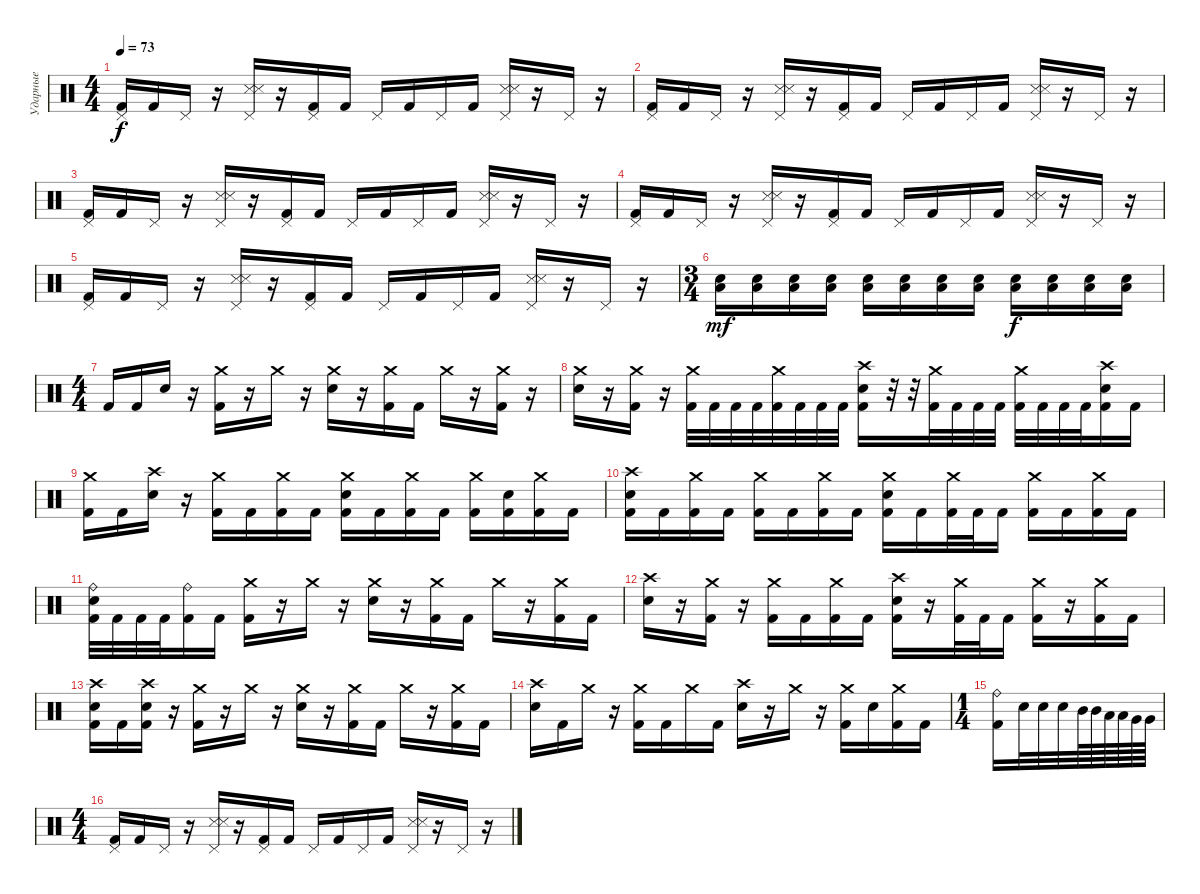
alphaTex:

\track ("Ударные" "Ударные") {instrument percussion}
\staff {score}
\articulation defaults
\ts (4 4)
\tempo 73
\clef neutral
\ks c
("Pedal Hi-Hat (hit)" "Kick (hit) 2").16{dy f} "Kick (hit) 2".16 "Pedal Hi-Hat (hit)".16 r.16 ("Pedal Hi-Hat (hit)" "Snare (side stick) 3" "Snare (side stick) 3").16 r.16 ("Pedal Hi-Hat (hit)" "Kick (hit) 2").16 "Kick (hit) 2".16 "Pedal Hi-Hat (hit)".16 "Kick (hit) 2".16 "Pedal Hi-Hat (hit)".16 "Kick (hit) 2".16 ("Pedal Hi-Hat (hit)" "Snare (side stick) 3" "Snare (side stick) 3").16 r.16 "Pedal Hi-Hat (hit)".16 r.16 |
("Pedal Hi-Hat (hit)" "Kick (hit) 2").16 "Kick (hit) 2".16 "Pedal Hi-Hat (hit)".16 r.16 ("Pedal Hi-Hat (hit)" "Snare (side stick) 3" "Snare (side stick) 3").16 r.16 ("Pedal Hi-Hat (hit)" "Kick (hit) 2").16 "Kick (hit) 2".16 "Pedal Hi-Hat (hit)".16 "Kick (hit) 2".16 "Pedal Hi-Hat (hit)".16 "Kick (hit) 2".16 ("Pedal Hi-Hat (hit)" "Snare (side stick) 3" "Snare (side stick) 3").16 r.16 "Pedal Hi-Hat (hit)".16 r.16 |
("Pedal Hi-Hat (hit)" "Kick (hit) 2").16 "Kick (hit) 2".16 "Pedal Hi-Hat (hit)".16 r.16 ("Pedal Hi-Hat (hit)" "Snare (side stick) 3" "Snare (side stick) 3").16 r.16 ("Pedal Hi-Hat (hit)" "Kick (hit) 2").16 "Kick (hit) 2".16 "Pedal Hi-Hat (hit)".16 "Kick (hit) 2".16 "Pedal Hi-Hat (hit)".16 "Kick (hit) 2".16 ("Pedal Hi-Hat (hit)" "Snare (side stick) 3" "Snare (side stick) 3").16 r.16 "Pedal Hi-Hat (hit)".16 r.16 |
("Pedal Hi-Hat (hit)" "Kick (hit) 2").16 "Kick (hit) 2".16 "Pedal Hi-Hat (hit)".16 r.16 ("Pedal Hi-Hat (hit)" "Snare (side stick) 3" "Snare (side stick) 3").16 r.16 ("Pedal Hi-Hat (hit)" "Kick (hit) 2").16 "Kick (hit) 2".16 "Pedal Hi-Hat (hit)".16 "Kick (hit) 2".16 "Pedal Hi-Hat (hit)".16 "Kick (hit) 2".16 ("Pedal Hi-Hat (hit)" "Snare (side stick) 3" "Snare (side stick) 3").16 r.16 "Pedal Hi-Hat (hit)".16 r.16 |
("Pedal Hi-Hat (hit)" "Kick (hit) 2").16 "Kick (hit) 2".16 "Pedal Hi-Hat (hit)".16 r.16 ("Pedal Hi-Hat (hit)" "Snare (side stick) 3" "Snare (side stick) 3").16 r.16 ("Pedal Hi-Hat (hit)" "Kick (hit) 2").16 "Kick (hit) 2".16 "Pedal Hi-Hat (hit)".16 "Kick (hit) 2".16 "Pedal Hi-Hat (hit)".16 "Kick (hit) 2".16 ("Pedal Hi-Hat (hit)" "Snare (side stick) 3" "Snare (side stick) 3").16 r.16 "Pedal Hi-Hat (hit)".16 r.16 |
\ts (3 4)
("Low Floor Tom (hit)" "Electric Snare (hit)").16{dy mf} ("Low Floor Tom (hit)" "Electric Snare (hit)").16 ("Low Floor Tom (hit)" "Electric Snare (hit)").16 ("Low Floor Tom (hit)" "Electric Snare (hit)").16 ("Low Floor Tom (hit)" "Electric Snare (hit)").16 ("Low Floor Tom (hit)" "Electric Snare (hit)").16 ("Low Floor Tom (hit)" "Electric Snare (hit)").16 ("Low Floor Tom (hit)" "Electric Snare (hit)").16 ("Low Floor Tom (hit)" "Electric Snare (hit)").16{dy f} ("Low Floor Tom (hit)" "Electric Snare (hit)").16 ("Low Floor Tom (hit)" "Electric Snare (hit)").16 ("Low Floor Tom (hit)" "Electric Snare (hit)").16 |
\ts (4 4)
"Kick (hit) 2".16 "Kick (hit) 2".16 "Electric Snare (hit)".16 r.16 ("Crash medium (hit)" "Kick (hit) 2").16 r.16 "Crash medium (hit)".16 r.16 ("Crash medium (hit)" "Electric Snare (hit)").16 r.16 ("Crash medium (hit)" "Kick (hit) 2").16 "Kick (hit) 2".16 "Crash medium (hit)".16 r.16 ("Crash medium (hit)" "Kick (hit) 2").16 r.16 |
("Crash medium (hit)" "Electric Snare (hit)").16 r.16 ("Crash medium (hit)" "Kick (hit) 2").16 r.16 ("Crash medium (hit)" "Kick (hit) 2").32 "Kick (hit) 2".32 "Kick (hit) 2".32 "Kick (hit) 2".32 ("Crash medium (hit)" "Kick (hit) 2").32 "Kick (hit) 2".32 "Kick (hit) 2".32 "Kick (hit) 2".32 ("Crash high (hit)" "Electric Snare (hit)" "Kick (hit) 2").16 r.32 r.32 ("Crash medium (hit)" "Kick (hit) 2").32 "Kick (hit) 2".32 "Kick (hit) 2".32 "Kick (hit) 2".32 ("Crash medium (hit)" "Kick (hit) 2").32 "Kick (hit) 2".32 "Kick (hit) 2".32 "Kick (hit) 2".32 ("Crash high (hit)" "Electric Snare (hit)" "Kick (hit) 2").16 "Kick (hit) 2".16 |
("Crash medium (hit)" "Kick (hit) 2").16 "Kick (hit) 2".16 ("Crash high (hit)" "Electric Snare (hit)").16 r.16 ("Crash medium (hit)" "Kick (hit) 2").16 "Kick (hit) 2".16 ("Crash medium (hit)" "Kick (hit) 2").16 "Kick (hit) 2".16 ("Crash medium (hit)" "Electric Snare (hit)" "Kick (hit) 2").16 "Kick (hit) 2".16 ("Crash medium (hit)" "Kick (hit) 2").16 "Kick (hit) 2".16 ("Crash medium (hit)" "Kick (hit) 2").16 ("Electric Snare (hit)" "Kick (hit) 2").16 ("Crash medium (hit)" "Kick (hit) 2").16 "Kick (hit) 2".16 |
("Crash high (hit)" "Electric Snare (hit)" "Kick (hit) 2").16 "Kick (hit) 2".16 ("Crash medium (hit)" "Kick (hit) 2").16 "Kick (hit) 2".16 ("Crash medium (hit)" "Kick (hit) 2").16 "Kick (hit) 2".16 ("Crash medium (hit)" "Kick (hit) 2").16 "Kick (hit) 2".16 ("Crash medium (hit)" "Electric Snare (hit)" "Kick (hit) 2").16 "Kick (hit) 2".16 ("Crash medium (hit)" "Kick (hit) 2").32 "Kick (hit) 2".32 "Kick (hit) 2".16 ("Crash medium (hit)" "Kick (hit) 2").16 "Kick (hit) 2".16 ("Crash medium (hit)" "Kick (hit) 2").16 "Kick (hit) 2".16 |
("Ride (bell)" "Electric Snare (hit)" "Kick (hit) 2").32 "Kick (hit) 2".32 "Kick (hit) 2".32 "Kick (hit) 2".32 ("Ride (bell)" "Kick (hit) 2").16 "Kick (hit) 2".16 ("Crash medium (hit)" "Kick (hit) 2").16 r.16 "Crash medium (hit)".16 r.16 ("Crash medium (hit)" "Electric Snare (hit)").16 r.16 ("Crash medium (hit)" "Kick (hit) 2").16 "Kick (hit) 2".16 "Crash medium (hit)".16 r.16 ("Crash medium (hit)" "Kick (hit) 2").16 "Kick (hit) 2".16 |
("Crash high (hit)" "Electric Snare (hit)").16 r.16 ("Crash medium (hit)" "Kick (hit) 2").16 r.16 ("Crash medium (hit)" "Kick (hit) 2").16 "Kick (hit) 2".16 ("Crash medium (hit)" "Kick (hit) 2").16 "Kick (hit) 2".16 ("Crash high (hit)" "Electric Snare (hit)" "Kick (hit) 2").16 r.16 ("Crash medium (hit)" "Kick (hit) 2").32 "Kick (hit) 2".32 "Kick (hit) 2".16 ("Crash medium (hit)" "Kick (hit) 2").16 r.16 ("Crash medium (hit)" "Kick (hit) 2").16 "Kick (hit) 2".16 |
("Crash high (hit)" "Electric Snare (hit)" "Kick (hit) 2").16 "Kick (hit) 2".16 ("Crash high (hit)" "Electric Snare (hit)" "Kick (hit) 2").16 r.16 ("Crash medium (hit)" "Kick (hit) 2").16 r.16 "Crash medium (hit)".16 r.16 ("Crash medium (hit)" "Electric Snare (hit)").16 r.16 ("Crash medium (hit)" "Kick (hit) 2").16 "Kick (hit) 2".16 "Crash medium (hit)".16 r.16 ("Crash medium (hit)" "Kick (hit) 2").16 "Kick (hit) 2".16 |
("Crash high (hit)" "Electric Snare (hit)").16 "Kick (hit) 2".16 "Crash medium (hit)".16 r.16 ("Crash medium (hit)" "Kick (hit) 2").16 "Kick (hit) 2".16 "Crash medium (hit)".16 "Kick (hit) 2".16 ("Crash high (hit)" "Electric Snare (hit)").16 r.16 "Crash medium (hit)".16 r.16 ("Crash medium (hit)" "Kick (hit) 2").16 "Electric Snare (hit)".16 ("Crash medium (hit)" "Kick (hit) 2").16 "Kick (hit) 2".16 |
\ts (1 4)
("Ride (bell)" "Kick (hit) 2").16 "Electric Snare (hit)".32 "Electric Snare (hit)".32 "Electric Snare (hit)".32 "Mid Tom (hit)".64 "Mid Tom (hit)".64 "Low Tom (hit)".64 "Low Tom (hit)".64 "Very Low Tom (hit)".64 "Very Low Tom (hit)".64 |
\ts (4 4)
("Pedal Hi-Hat (hit)" "Kick (hit) 2").16 "Kick (hit) 2".16 "Pedal Hi-Hat (hit)".16 r.16 ("Pedal Hi-Hat (hit)" "Snare (side stick) 3" "Snare (side stick) 3").16 r.16 ("Pedal Hi-Hat (hit)" "Kick (hit) 2").16 "Kick (hit) 2".16 "Pedal Hi-Hat (hit)".16 "Kick (hit) 2".16 "Pedal Hi-Hat (hit)".16 "Kick (hit) 2".16 ("Pedal Hi-Hat (hit)" "Snare (side stick) 3" "Snare (side stick) 3").16 r.16 "Pedal Hi-Hat (hit)".16 r.16
